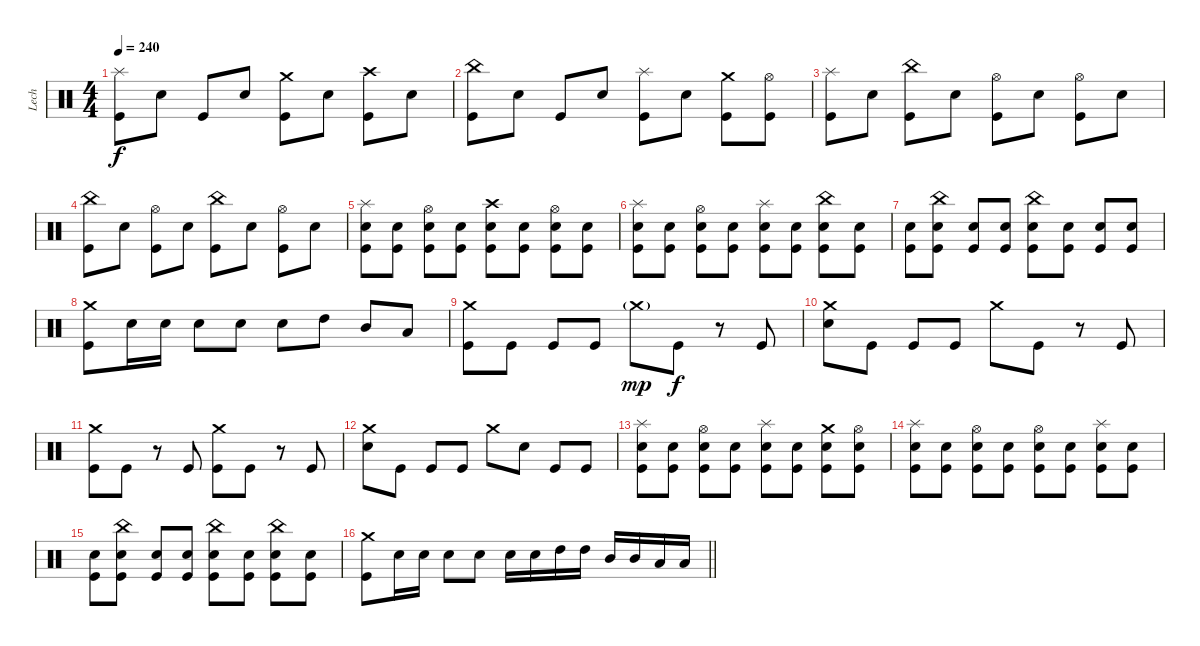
\track ("Lech" "Lech") {instrument percussion}
\staff {score}
\articulation defaults
\ts (4 4)
\tempo 240
\clef neutral
\ks c
("Splash (hit)" "Kick (hit)").8{dy f} "Snare (hit) 2".8 "Kick (hit)".8 "Snare (hit) 2".8 ("Crash medium (hit)" "Kick (hit)").8 "Snare (hit) 2".8 ("Crash high (hit)" "Kick (hit)").8 "Snare (hit) 2".8 |
("China (hit)" "Kick (hit)").8 "Snare (hit) 2".8 "Kick (hit)".8 "Snare (hit) 2".8 ("Splash (hit)" "Kick (hit)").8 "Snare (hit) 2".8 ("Crash medium (hit)" "Kick (hit)").8 ("Hi-Hat (open)" "Kick (hit)").8 |
("Splash (hit)" "Kick (hit)").8 "Snare (hit) 2".8 ("China (hit)" "Kick (hit)").8 "Snare (hit) 2".8 ("Hi-Hat (open)" "Kick (hit)").8 "Snare (hit) 2".8 ("Hi-Hat (open)" "Kick (hit)").8 "Snare (hit) 2".8 |
("China (hit)" "Kick (hit)").8 "Snare (hit) 2".8 ("Hi-Hat (open)" "Kick (hit)").8 "Snare (hit) 2".8 ("China (hit)" "Kick (hit)").8 "Snare (hit) 2".8 ("Hi-Hat (open)" "Kick (hit)").8 "Snare (hit) 2".8 |
("Splash (hit)" "Snare (hit) 2" "Kick (hit)").8 ("Snare (hit) 2" "Kick (hit)").8 ("Hi-Hat (open)" "Snare (hit) 2" "Kick (hit)").8 ("Snare (hit) 2" "Kick (hit)").8 ("Crash high (hit)" "Snare (hit) 2" "Kick (hit)").8 ("Snare (hit) 2" "Kick (hit)").8 ("Hi-Hat (open)" "Snare (hit) 2" "Kick (hit)").8 ("Snare (hit) 2" "Kick (hit)").8 |
("Splash (hit)" "Snare (hit) 2" "Kick (hit)").8 ("Snare (hit) 2" "Kick (hit)").8 ("Hi-Hat (open)" "Snare (hit) 2" "Kick (hit)").8 ("Snare (hit) 2" "Kick (hit)").8 ("Splash (hit)" "Snare (hit) 2" "Kick (hit)").8 ("Snare (hit) 2" "Kick (hit)").8 ("China (hit)" "Snare (hit) 2" "Kick (hit)").8 ("Snare (hit) 2" "Kick (hit)").8 |
("Snare (hit) 2" "Kick (hit)").8 ("China (hit)" "Snare (hit) 2" "Kick (hit)").8 ("Snare (hit) 2" "Kick (hit)").8 ("Snare (hit) 2" "Kick (hit)").8 ("China (hit)" "Snare (hit) 2" "Kick (hit)").8 ("Snare (hit) 2" "Kick (hit)").8 ("Snare (hit) 2" "Kick (hit)").8 ("Snare (hit) 2" "Kick (hit)").8 |
("Crash medium (hit)" "Kick (hit)").8 "Snare (hit) 2".16 "Snare (hit) 2".16 "Snare (hit) 2".8 "Snare (hit) 2".8 "Snare (hit) 2".8 "High Tom (hit)".8 "Mid Tom (hit)".8 "Low Tom (hit)".8 |
("Crash medium (hit)" "Kick (hit)").8 "Kick (hit)".8 "Kick (hit)".8 "Kick (hit)".8 "Crash medium (hit)"{g}.8{dy mp} "Kick (hit)".8{dy f} r.8 "Kick (hit)".8 |
("Crash medium (hit)" "Snare (hit) 2").8 "Kick (hit)".8 "Kick (hit)".8 "Kick (hit)".8 "Crash medium (hit)".8 "Kick (hit)".8 r.8 "Kick (hit)".8 |
("Crash medium (hit)" "Kick (hit)").8 "Kick (hit)".8 r.8 "Kick (hit)".8 ("Crash medium (hit)" "Kick (hit)").8 "Kick (hit)".8 r.8 "Kick (hit)".8 |
("Crash medium (hit)" "Snare (hit) 2").8 "Kick (hit)".8 "Kick (hit)".8 "Kick (hit)".8 "Crash medium (hit)".8 "Snare (hit) 2".8 "Kick (hit)".8 "Kick (hit)".8 |
("Splash (hit)" "Snare (hit) 2" "Kick (hit)").8 ("Snare (hit) 2" "Kick (hit)").8 ("Hi-Hat (open)" "Snare (hit) 2" "Kick (hit)").8 ("Snare (hit) 2" "Kick (hit)").8 ("Splash (hit)" "Snare (hit) 2" "Kick (hit)").8 ("Snare (hit) 2" "Kick (hit)").8 ("Crash medium (hit)" "Snare (hit) 2" "Kick (hit)").8 ("Hi-Hat (open)" "Snare (hit) 2" "Kick (hit)").8 |
("Splash (hit)" "Snare (hit) 2" "Kick (hit)").8 ("Snare (hit) 2" "Kick (hit)").8 ("Hi-Hat (open)" "Snare (hit) 2" "Kick (hit)").8 ("Snare (hit) 2" "Kick (hit)").8 ("Hi-Hat (open)" "Snare (hit) 2" "Kick (hit)").8 ("Snare (hit) 2" "Kick (hit)").8 ("Splash (hit)" "Snare (hit) 2" "Kick (hit)").8 ("Snare (hit) 2" "Kick (hit)").8 |
("Snare (hit) 2" "Kick (hit)").8 ("China (hit)" "Snare (hit) 2" "Kick (hit)").8 ("Snare (hit) 2" "Kick (hit)").8 ("Snare (hit) 2" "Kick (hit)").8 ("China (hit)" "Snare (hit) 2" "Kick (hit)").8 ("Snare (hit) 2" "Kick (hit)").8 ("China (hit)" "Snare (hit) 2" "Kick (hit)").8 ("Snare (hit) 2" "Kick (hit)").8 |
\barLineRight lightlight
("Crash medium (hit)" "Kick (hit)").8 "Snare (hit) 2".16 "Snare (hit) 2".16 "Snare (hit) 2".8 "Snare (hit) 2".8 "Snare (hit) 2".16 "Snare (hit) 2".16 "High Tom (hit)".16 "High Tom (hit)".16 "Mid Tom (hit)".16 "Mid Tom (hit)".16 "Low Tom (hit)".16 "Low Tom (hit)".16
